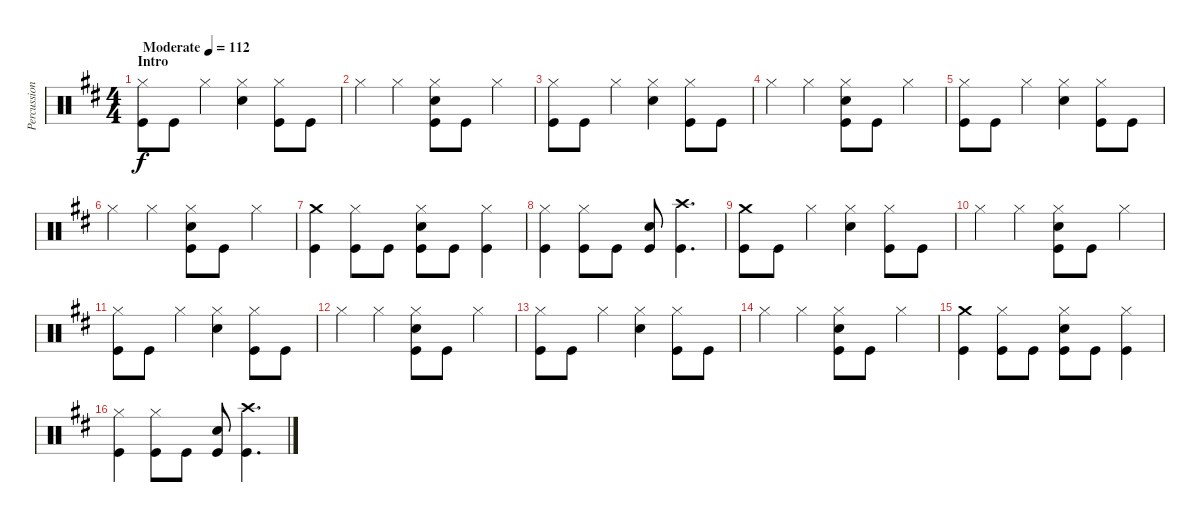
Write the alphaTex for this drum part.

\track ("Percussion" "Percussion") {instrument percussion}
\staff {score}
\articulation defaults
\ts (4 4)
\section ("" "Intro")
\tempo (112 "Moderate")
\clef neutral
\ks d
("Hi-Hat (closed)" "Kick (hit)").8{dy f} "Kick (hit)".8 "Hi-Hat (closed)".4 ("Hi-Hat (closed)" "Electric Snare (hit)").4 ("Hi-Hat (closed)" "Kick (hit)").8 "Kick (hit)".8 |
"Hi-Hat (closed)".4 "Hi-Hat (closed)".4 ("Hi-Hat (closed)" "Electric Snare (hit)" "Kick (hit)").8 "Kick (hit)".8 "Hi-Hat (closed)".4 |
("Hi-Hat (closed)" "Kick (hit)").8 "Kick (hit)".8 "Hi-Hat (closed)".4 ("Hi-Hat (closed)" "Electric Snare (hit)").4 ("Hi-Hat (closed)" "Kick (hit)").8 "Kick (hit)".8 |
"Hi-Hat (closed)".4 "Hi-Hat (closed)".4 ("Hi-Hat (closed)" "Electric Snare (hit)" "Kick (hit)").8 "Kick (hit)".8 "Hi-Hat (closed)".4 |
("Hi-Hat (closed)" "Kick (hit)").8 "Kick (hit)".8 "Hi-Hat (closed)".4 ("Hi-Hat (closed)" "Electric Snare (hit)").4 ("Hi-Hat (closed)" "Kick (hit)").8 "Kick (hit)".8 |
"Hi-Hat (closed)".4 "Hi-Hat (closed)".4 ("Hi-Hat (closed)" "Electric Snare (hit)" "Kick (hit)").8 "Kick (hit)".8 "Hi-Hat (closed)".4 |
("Crash medium (hit)" "Kick (hit)").4 ("Hi-Hat (closed)" "Kick (hit)").8 "Kick (hit)".8 ("Hi-Hat (closed)" "Electric Snare (hit)" "Kick (hit)").8 "Kick (hit)".8 ("Hi-Hat (closed)" "Kick (hit)").4 |
("Hi-Hat (closed)" "Kick (hit)").4 ("Hi-Hat (closed)" "Kick (hit)").8 "Kick (hit)".8 ("Electric Snare (hit)" "Kick (hit)").8 ("Crash high (hit)" "Kick (hit)").4{d} |
("Crash medium (hit)" "Kick (hit)").8 "Kick (hit)".8 "Hi-Hat (closed)".4 ("Hi-Hat (closed)" "Electric Snare (hit)").4 ("Hi-Hat (closed)" "Kick (hit)").8 "Kick (hit)".8 |
"Hi-Hat (closed)".4 "Hi-Hat (closed)".4 ("Hi-Hat (closed)" "Electric Snare (hit)" "Kick (hit)").8 "Kick (hit)".8 "Hi-Hat (closed)".4 |
("Hi-Hat (closed)" "Kick (hit)").8 "Kick (hit)".8 "Hi-Hat (closed)".4 ("Hi-Hat (closed)" "Electric Snare (hit)").4 ("Hi-Hat (closed)" "Kick (hit)").8 "Kick (hit)".8 |
"Hi-Hat (closed)".4 "Hi-Hat (closed)".4 ("Hi-Hat (closed)" "Electric Snare (hit)" "Kick (hit)").8 "Kick (hit)".8 "Hi-Hat (closed)".4 |
("Hi-Hat (closed)" "Kick (hit)").8 "Kick (hit)".8 "Hi-Hat (closed)".4 ("Hi-Hat (closed)" "Electric Snare (hit)").4 ("Hi-Hat (closed)" "Kick (hit)").8 "Kick (hit)".8 |
"Hi-Hat (closed)".4 "Hi-Hat (closed)".4 ("Hi-Hat (closed)" "Electric Snare (hit)" "Kick (hit)").8 "Kick (hit)".8 "Hi-Hat (closed)".4 |
("Crash medium (hit)" "Kick (hit)").4 ("Hi-Hat (closed)" "Kick (hit)").8 "Kick (hit)".8 ("Hi-Hat (closed)" "Electric Snare (hit)" "Kick (hit)").8 "Kick (hit)".8 ("Hi-Hat (closed)" "Kick (hit)").4 |
("Hi-Hat (closed)" "Kick (hit)").4 ("Hi-Hat (closed)" "Kick (hit)").8 "Kick (hit)".8 ("Electric Snare (hit)" "Kick (hit)").8 ("Crash high (hit)" "Kick (hit)").4{d}
